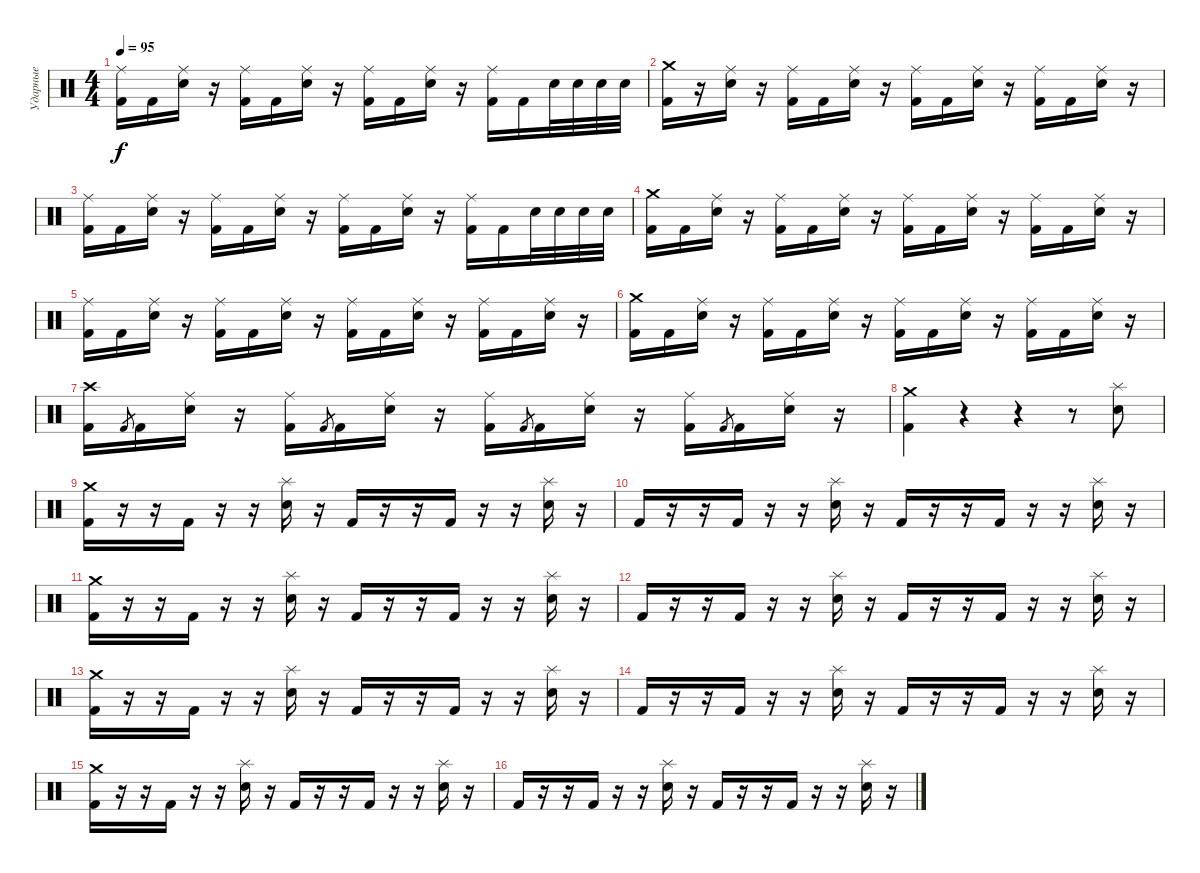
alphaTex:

\track ("Ударные" "Ударные") {instrument percussion}
\staff {score}
\articulation defaults
\ts (4 4)
\tempo 95
\clef neutral
\ks c
("Ride (middle)" "Kick (hit) 2").16{dy f} "Kick (hit) 2".16 ("Ride (middle)" "Electric Snare (hit)").16 r.16 ("Ride (middle)" "Kick (hit) 2").16 "Kick (hit) 2".16 ("Ride (middle)" "Electric Snare (hit)").16 r.16 ("Ride (middle)" "Kick (hit) 2").16 "Kick (hit) 2".16 ("Ride (middle)" "Electric Snare (hit)").16 r.16 ("Ride (middle)" "Kick (hit) 2").16 "Kick (hit) 2".16 "Electric Snare (hit)".32 "Electric Snare (hit)".32 "Electric Snare (hit)".32 "Electric Snare (hit)".32 |
("Crash medium (hit)" "Kick (hit) 2").16 r.16 ("Ride (middle)" "Electric Snare (hit)").16 r.16 ("Ride (middle)" "Kick (hit) 2").16 "Kick (hit) 2".16 ("Ride (middle)" "Electric Snare (hit)").16 r.16 ("Ride (middle)" "Kick (hit) 2").16 "Kick (hit) 2".16 ("Ride (middle)" "Electric Snare (hit)").16 r.16 ("Ride (middle)" "Kick (hit) 2").16 "Kick (hit) 2".16 ("Ride (middle)" "Electric Snare (hit)").16 r.16 |
("Ride (middle)" "Kick (hit) 2").16 "Kick (hit) 2".16 ("Ride (middle)" "Electric Snare (hit)").16 r.16 ("Ride (middle)" "Kick (hit) 2").16 "Kick (hit) 2".16 ("Ride (middle)" "Electric Snare (hit)").16 r.16 ("Ride (middle)" "Kick (hit) 2").16 "Kick (hit) 2".16 ("Ride (middle)" "Electric Snare (hit)").16 r.16 ("Ride (middle)" "Kick (hit) 2").16 "Kick (hit) 2".16 "Electric Snare (hit)".32 "Electric Snare (hit)".32 "Electric Snare (hit)".32 "Electric Snare (hit)".32 |
("Crash medium (hit)" "Kick (hit) 2").16 "Kick (hit) 2".16 ("Ride (middle)" "Electric Snare (hit)").16 r.16 ("Ride (middle)" "Kick (hit) 2").16 "Kick (hit) 2".16 ("Ride (middle)" "Electric Snare (hit)").16 r.16 ("Ride (middle)" "Kick (hit) 2").16 "Kick (hit) 2".16 ("Ride (middle)" "Electric Snare (hit)").16 r.16 ("Ride (middle)" "Kick (hit) 2").16 "Kick (hit) 2".16 ("Ride (middle)" "Electric Snare (hit)").16 r.16 |
("Ride (middle)" "Kick (hit) 2").16 "Kick (hit) 2".16 ("Ride (middle)" "Electric Snare (hit)").16 r.16 ("Ride (middle)" "Kick (hit) 2").16 "Kick (hit) 2".16 ("Ride (middle)" "Electric Snare (hit)").16 r.16 ("Ride (middle)" "Kick (hit) 2").16 "Kick (hit) 2".16 ("Ride (middle)" "Electric Snare (hit)").16 r.16 ("Ride (middle)" "Kick (hit) 2").16 "Kick (hit) 2".16 ("Ride (middle)" "Electric Snare (hit)").16 r.16 |
("Crash medium (hit)" "Kick (hit) 2").16 "Kick (hit) 2".16 ("Ride (middle)" "Electric Snare (hit)").16 r.16 ("Ride (middle)" "Kick (hit) 2").16 "Kick (hit) 2".16 ("Ride (middle)" "Electric Snare (hit)").16 r.16 ("Ride (middle)" "Kick (hit) 2").16 "Kick (hit) 2".16 ("Ride (middle)" "Electric Snare (hit)").16 r.16 ("Ride (middle)" "Kick (hit) 2").16 "Kick (hit) 2".16 ("Ride (middle)" "Electric Snare (hit)").16 r.16 |
("Crash high (hit)" "Kick (hit) 2").16 "Kick (hit) 2".8{gr} "Kick (hit) 2".16 ("Ride (middle)" "Electric Snare (hit)").16 r.16 ("Ride (middle)" "Kick (hit) 2").16 "Kick (hit) 2".8{gr} "Kick (hit) 2".16 ("Ride (middle)" "Electric Snare (hit)").16 r.16 ("Ride (middle)" "Kick (hit) 2").16 "Kick (hit) 2".8{gr} "Kick (hit) 2".16 ("Ride (middle)" "Electric Snare (hit)").16 r.16 ("Ride (middle)" "Kick (hit) 2").16 "Kick (hit) 2".8{gr} "Kick (hit) 2".16 ("Ride (middle)" "Electric Snare (hit)").16 r.16 |
("Crash medium (hit)" "Kick (hit) 2").4 r.4 r.4 r.8 ("Electric Snare (hit)" "Splash (hit)").8 |
("Crash medium (hit)" "Kick (hit) 2").16 r.16 r.16 "Kick (hit) 2".16 r.16 r.16 ("Splash (hit)" "Electric Snare (hit)").16 r.16 "Kick (hit) 2".16 r.16 r.16 "Kick (hit) 2".16 r.16 r.16 ("Splash (hit)" "Electric Snare (hit)").16 r.16 |
"Kick (hit) 2".16 r.16 r.16 "Kick (hit) 2".16 r.16 r.16 ("Splash (hit)" "Electric Snare (hit)").16 r.16 "Kick (hit) 2".16 r.16 r.16 "Kick (hit) 2".16 r.16 r.16 ("Splash (hit)" "Electric Snare (hit)").16 r.16 |
("Crash medium (hit)" "Kick (hit) 2").16 r.16 r.16 "Kick (hit) 2".16 r.16 r.16 ("Splash (hit)" "Electric Snare (hit)").16 r.16 "Kick (hit) 2".16 r.16 r.16 "Kick (hit) 2".16 r.16 r.16 ("Splash (hit)" "Electric Snare (hit)").16 r.16 |
"Kick (hit) 2".16 r.16 r.16 "Kick (hit) 2".16 r.16 r.16 ("Splash (hit)" "Electric Snare (hit)").16 r.16 "Kick (hit) 2".16 r.16 r.16 "Kick (hit) 2".16 r.16 r.16 ("Splash (hit)" "Electric Snare (hit)").16 r.16 |
("Crash medium (hit)" "Kick (hit) 2").16 r.16 r.16 "Kick (hit) 2".16 r.16 r.16 ("Splash (hit)" "Electric Snare (hit)").16 r.16 "Kick (hit) 2".16 r.16 r.16 "Kick (hit) 2".16 r.16 r.16 ("Splash (hit)" "Electric Snare (hit)").16 r.16 |
"Kick (hit) 2".16 r.16 r.16 "Kick (hit) 2".16 r.16 r.16 ("Splash (hit)" "Electric Snare (hit)").16 r.16 "Kick (hit) 2".16 r.16 r.16 "Kick (hit) 2".16 r.16 r.16 ("Splash (hit)" "Electric Snare (hit)").16 r.16 |
("Crash medium (hit)" "Kick (hit) 2").16 r.16 r.16 "Kick (hit) 2".16 r.16 r.16 ("Splash (hit)" "Electric Snare (hit)").16 r.16 "Kick (hit) 2".16 r.16 r.16 "Kick (hit) 2".16 r.16 r.16 ("Splash (hit)" "Electric Snare (hit)").16 r.16 |
"Kick (hit) 2".16 r.16 r.16 "Kick (hit) 2".16 r.16 r.16 ("Splash (hit)" "Electric Snare (hit)").16 r.16 "Kick (hit) 2".16 r.16 r.16 "Kick (hit) 2".16 r.16 r.16 ("Splash (hit)" "Electric Snare (hit)").16 r.16
